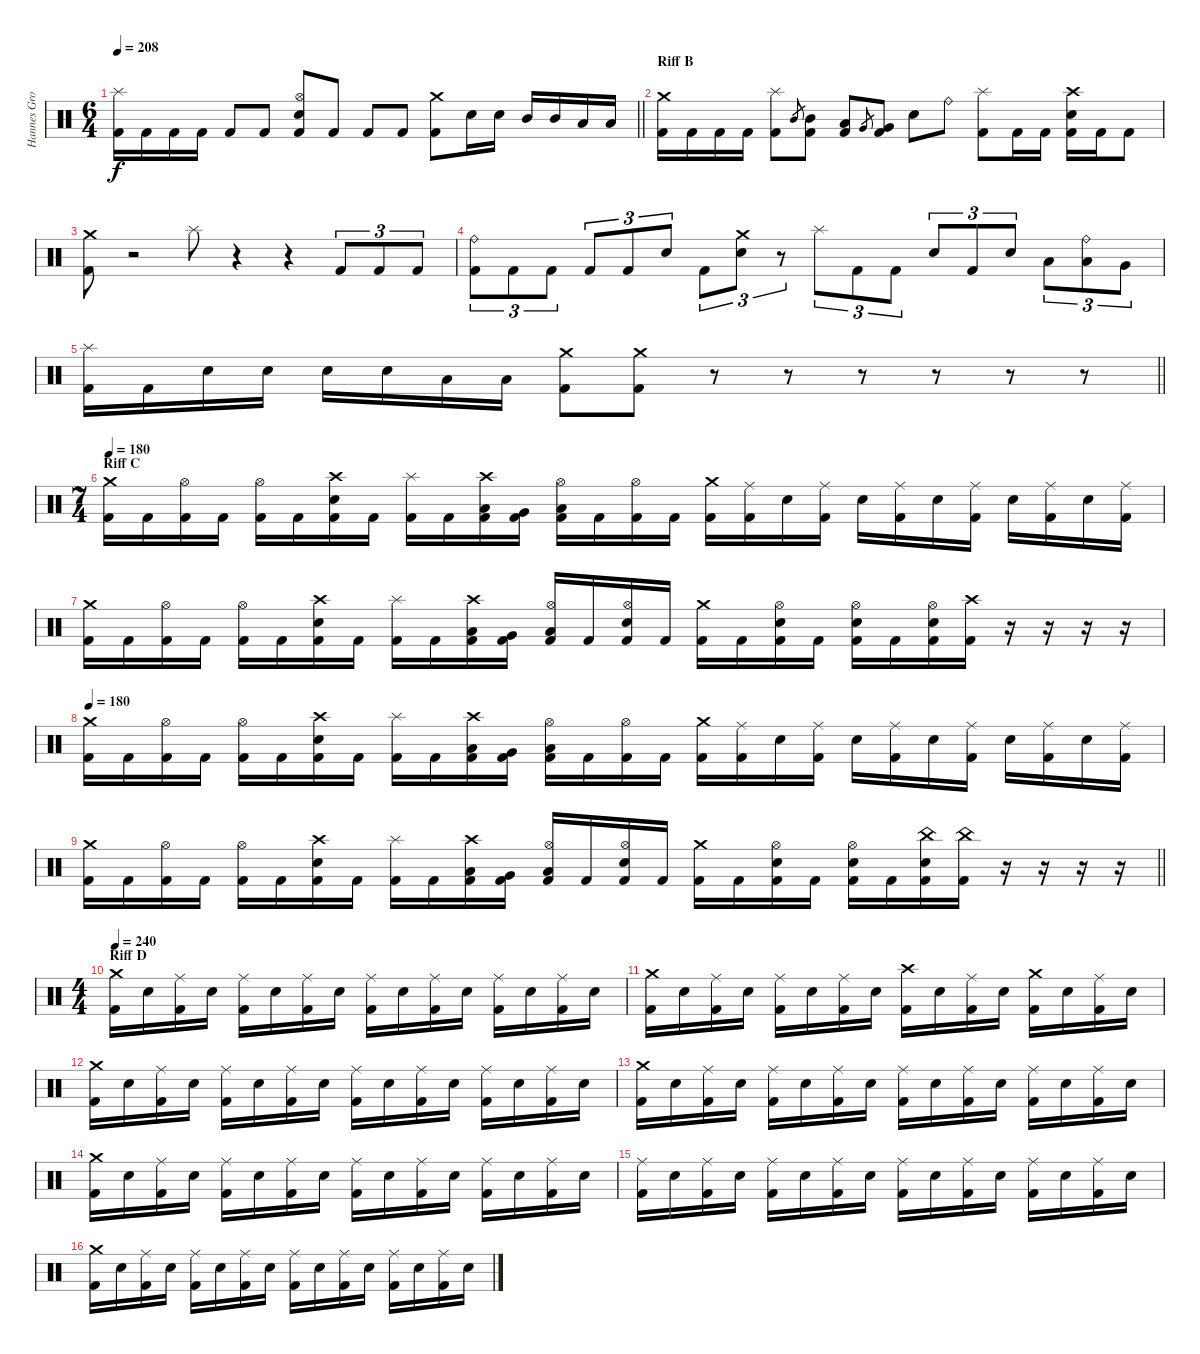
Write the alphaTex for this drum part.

\track ("Hannes Grossmann" "Hannes Gro") {instrument percussion}
\staff {score}
\articulation defaults
\ts (6 4)
\tempo 208
\clef neutral
\barLineRight lightlight
\ks c
("Splash (hit)" "Kick (hit) 2").16{dy f} "Kick (hit) 2".16 "Kick (hit) 2".16 "Kick (hit) 2".16 "Kick (hit) 2".8 "Kick (hit) 2".8 ("Hi-Hat (open)" "Electric Snare (hit)" "Kick (hit) 2").8 "Kick (hit) 2".8 "Kick (hit) 2".8 "Kick (hit) 2".8 ("Crash medium (hit)" "Kick (hit) 2").8 "Electric Snare (hit)".16 "Electric Snare (hit)".16 "Mid Tom (hit)".16 "Mid Tom (hit)".16 "Low Tom (hit)".16 "Low Tom (hit)".16 |
\section ("" "Riff B")
("Crash medium (hit)" "Kick (hit) 2").16 "Kick (hit) 2".16 "Kick (hit) 2".16 "Kick (hit) 2".16 ("Splash (hit)" "Kick (hit) 2").8 "Mid Tom (hit)".8{gr} ("Mid Tom (hit)" "Kick (hit) 2").8 ("Low Tom (hit)" "Kick (hit) 2").8 "Very Low Tom (hit)".8{gr} ("Very Low Tom (hit)" "Kick (hit) 2").8 "Electric Snare (hit)".8 "Ride (bell)".8 ("Splash (hit)" "Kick (hit) 2").8 "Kick (hit) 2".16 "Kick (hit) 2".16 ("Crash high (hit)" "Electric Snare (hit)" "Kick (hit) 2").16 "Kick (hit) 2".16 "Kick (hit) 2".8 |
("Crash medium (hit)" "Kick (hit) 2").8 r.2 "Splash (hit)".8 r.4 r.4 "Kick (hit) 2".8{tu (3 2)} "Kick (hit) 2".8{tu (3 2)} "Kick (hit) 2".8{tu (3 2)} |
("Ride (bell)" "Kick (hit) 2").8{tu (3 2)} "Kick (hit) 2".8{tu (3 2)} "Kick (hit) 2".8{tu (3 2)} "Kick (hit) 2".8{tu (3 2)} "Kick (hit) 2".8{tu (3 2)} "Electric Snare (hit)".8{tu (3 2)} "Kick (hit) 2".8{tu (3 2)} ("Crash medium (hit)" "Electric Snare (hit)").8{tu (3 2)} r.8{tu (3 2)} "Splash (hit)".8{tu (3 2)} "Kick (hit) 2".8{tu (3 2)} "Kick (hit) 2".8{tu (3 2)} "Electric Snare (hit)".8{tu (3 2)} "Kick (hit) 2".8{tu (3 2)} "Electric Snare (hit)".8{tu (3 2)} "Low Tom (hit)".8{tu (3 2)} ("Ride (bell)" "Low Tom (hit)").8{tu (3 2)} "Very Low Tom (hit)".8{tu (3 2)} |
\barLineRight lightlight
("Splash (hit)" "Kick (hit) 2").16 "Kick (hit) 2".16 "Electric Snare (hit)".16 "Electric Snare (hit)".16 "Electric Snare (hit)".16 "Electric Snare (hit)".16 "Low Tom (hit)".16 "Low Tom (hit)".16 ("Crash medium (hit)" "Kick (hit) 2").8 ("Crash medium (hit)" "Kick (hit) 2").8 r.8 r.8 r.8 r.8 r.8 r.8 |
\ts (7 4)
\section ("" "Riff C")
\tempo 180
("Crash medium (hit)" "Kick (hit) 2").16 "Kick (hit) 2".16 ("Hi-Hat (open)" "Kick (hit) 2").16 "Kick (hit) 2".16 ("Hi-Hat (open)" "Kick (hit) 2").16 "Kick (hit) 2".16 ("Crash high (hit)" "Electric Snare (hit)" "Kick (hit) 2").16 "Kick (hit) 2".16 ("Splash (hit)" "Kick (hit) 2").16 "Kick (hit) 2".16 ("Crash high (hit)" "Low Tom (hit)" "Kick (hit) 2").16 ("Very Low Tom (hit)" "Kick (hit) 2").16 ("Hi-Hat (open)" "Low Tom (hit)" "Kick (hit) 2").16 "Kick (hit) 2".16 ("Hi-Hat (open)" "Kick (hit) 2").16 "Kick (hit) 2".16 ("Crash medium (hit)" "Kick (hit) 2").16 ("Ride (middle)" "Kick (hit) 2").16 "Electric Snare (hit)".16 ("Ride (middle)" "Kick (hit) 2").16 "Electric Snare (hit)".16 ("Ride (middle)" "Kick (hit) 2").16 "Electric Snare (hit)".16 ("Ride (middle)" "Kick (hit) 2").16 "Electric Snare (hit)".16 ("Ride (middle)" "Kick (hit) 2").16 "Electric Snare (hit)".16 ("Ride (middle)" "Kick (hit) 2").16 |
("Crash medium (hit)" "Kick (hit) 2").16 "Kick (hit) 2".16 ("Hi-Hat (open)" "Kick (hit) 2").16 "Kick (hit) 2".16 ("Hi-Hat (open)" "Kick (hit) 2").16 "Kick (hit) 2".16 ("Crash high (hit)" "Electric Snare (hit)" "Kick (hit) 2").16 "Kick (hit) 2".16 ("Splash (hit)" "Kick (hit) 2").16 "Kick (hit) 2".16 ("Crash high (hit)" "Low Tom (hit)" "Kick (hit) 2").16 ("Very Low Tom (hit)" "Kick (hit) 2").16 ("Hi-Hat (open)" "Low Tom (hit)" "Kick (hit) 2").16 "Kick (hit) 2".16 ("Hi-Hat (open)" "Electric Snare (hit)" "Kick (hit) 2").16 "Kick (hit) 2".16 ("Crash medium (hit)" "Kick (hit) 2").16 "Kick (hit) 2".16 ("Hi-Hat (open)" "Electric Snare (hit)" "Kick (hit) 2").16 "Kick (hit) 2".16 ("Hi-Hat (open)" "Electric Snare (hit)" "Kick (hit) 2").16 "Kick (hit) 2".16 ("Hi-Hat (open)" "Electric Snare (hit)" "Kick (hit) 2").16 ("Crash high (hit)" "Kick (hit) 2").16 r.16 r.16 r.16 r.16 |
\tempo 180
("Crash medium (hit)" "Kick (hit) 2").16 "Kick (hit) 2".16 ("Hi-Hat (open)" "Kick (hit) 2").16 "Kick (hit) 2".16 ("Hi-Hat (open)" "Kick (hit) 2").16 "Kick (hit) 2".16 ("Crash high (hit)" "Electric Snare (hit)" "Kick (hit) 2").16 "Kick (hit) 2".16 ("Splash (hit)" "Kick (hit) 2").16 "Kick (hit) 2".16 ("Crash high (hit)" "Low Tom (hit)" "Kick (hit) 2").16 ("Very Low Tom (hit)" "Kick (hit) 2").16 ("Hi-Hat (open)" "Low Tom (hit)" "Kick (hit) 2").16 "Kick (hit) 2".16 ("Hi-Hat (open)" "Kick (hit) 2").16 "Kick (hit) 2".16 ("Crash medium (hit)" "Kick (hit) 2").16 ("Ride (middle)" "Kick (hit) 2").16 "Electric Snare (hit)".16 ("Ride (middle)" "Kick (hit) 2").16 "Electric Snare (hit)".16 ("Ride (middle)" "Kick (hit) 2").16 "Electric Snare (hit)".16 ("Ride (middle)" "Kick (hit) 2").16 "Electric Snare (hit)".16 ("Ride (middle)" "Kick (hit) 2").16 "Electric Snare (hit)".16 ("Ride (middle)" "Kick (hit) 2").16 |
\barLineRight lightlight
("Crash medium (hit)" "Kick (hit) 2").16 "Kick (hit) 2".16 ("Hi-Hat (open)" "Kick (hit) 2").16 "Kick (hit) 2".16 ("Hi-Hat (open)" "Kick (hit) 2").16 "Kick (hit) 2".16 ("Crash high (hit)" "Electric Snare (hit)" "Kick (hit) 2").16 "Kick (hit) 2".16 ("Splash (hit)" "Kick (hit) 2").16 "Kick (hit) 2".16 ("Crash high (hit)" "Low Tom (hit)" "Kick (hit) 2").16 ("Very Low Tom (hit)" "Kick (hit) 2").16 ("Hi-Hat (open)" "Low Tom (hit)" "Kick (hit) 2").16 "Kick (hit) 2".16 ("Hi-Hat (open)" "Electric Snare (hit)" "Kick (hit) 2").16 "Kick (hit) 2".16 ("Crash medium (hit)" "Kick (hit) 2").16 "Kick (hit) 2".16 ("Hi-Hat (open)" "Electric Snare (hit)" "Kick (hit) 2").16 "Kick (hit) 2".16 ("Hi-Hat (open)" "Electric Snare (hit)" "Kick (hit) 2").16 "Kick (hit) 2".16 ("China (hit)" "Electric Snare (hit)" "Kick (hit) 2").16 ("China (hit)" "Kick (hit) 2").16 r.16 r.16 r.16 r.16 |
\ts (4 4)
\section ("" "Riff D")
\tempo 240
("Crash medium (hit)" "Kick (hit) 2").16 "Electric Snare (hit)".16 ("Ride (middle)" "Kick (hit) 2").16 "Electric Snare (hit)".16 ("Ride (middle)" "Kick (hit) 2").16 "Electric Snare (hit)".16 ("Ride (middle)" "Kick (hit) 2").16 "Electric Snare (hit)".16 ("Ride (middle)" "Kick (hit) 2").16 "Electric Snare (hit)".16 ("Ride (middle)" "Kick (hit) 2").16 "Electric Snare (hit)".16 ("Ride (middle)" "Kick (hit) 2").16 "Electric Snare (hit)".16 ("Ride (middle)" "Kick (hit) 2").16 "Electric Snare (hit)".16 |
("Crash medium (hit)" "Kick (hit) 2").16 "Electric Snare (hit)".16 ("Ride (middle)" "Kick (hit) 2").16 "Electric Snare (hit)".16 ("Ride (middle)" "Kick (hit) 2").16 "Electric Snare (hit)".16 ("Ride (middle)" "Kick (hit) 2").16 "Electric Snare (hit)".16 ("Crash high (hit)" "Kick (hit) 2").16 "Electric Snare (hit)".16 ("Ride (middle)" "Kick (hit) 2").16 "Electric Snare (hit)".16 ("Crash medium (hit)" "Kick (hit) 2").16 "Electric Snare (hit)".16 ("Ride (middle)" "Kick (hit) 2").16 "Electric Snare (hit)".16 |
("Crash medium (hit)" "Kick (hit) 2").16 "Electric Snare (hit)".16 ("Ride (middle)" "Kick (hit) 2").16 "Electric Snare (hit)".16 ("Ride (middle)" "Kick (hit) 2").16 "Electric Snare (hit)".16 ("Ride (middle)" "Kick (hit) 2").16 "Electric Snare (hit)".16 ("Ride (middle)" "Kick (hit) 2").16 "Electric Snare (hit)".16 ("Ride (middle)" "Kick (hit) 2").16 "Electric Snare (hit)".16 ("Ride (middle)" "Kick (hit) 2").16 "Electric Snare (hit)".16 ("Ride (middle)" "Kick (hit) 2").16 "Electric Snare (hit)".16 |
("Crash medium (hit)" "Kick (hit) 2").16 "Electric Snare (hit)".16 ("Ride (middle)" "Kick (hit) 2").16 "Electric Snare (hit)".16 ("Ride (middle)" "Kick (hit) 2").16 "Electric Snare (hit)".16 ("Ride (middle)" "Kick (hit) 2").16 "Electric Snare (hit)".16 ("Ride (middle)" "Kick (hit) 2").16 "Electric Snare (hit)".16 ("Ride (middle)" "Kick (hit) 2").16 "Electric Snare (hit)".16 ("Ride (middle)" "Kick (hit) 2").16 "Electric Snare (hit)".16 ("Ride (middle)" "Kick (hit) 2").16 "Electric Snare (hit)".16 |
("Crash medium (hit)" "Kick (hit) 2").16 "Electric Snare (hit)".16 ("Ride (middle)" "Kick (hit) 2").16 "Electric Snare (hit)".16 ("Ride (middle)" "Kick (hit) 2").16 "Electric Snare (hit)".16 ("Ride (middle)" "Kick (hit) 2").16 "Electric Snare (hit)".16 ("Ride (middle)" "Kick (hit) 2").16 "Electric Snare (hit)".16 ("Ride (middle)" "Kick (hit) 2").16 "Electric Snare (hit)".16 ("Ride (middle)" "Kick (hit) 2").16 "Electric Snare (hit)".16 ("Ride (middle)" "Kick (hit) 2").16 "Electric Snare (hit)".16 |
("Ride (middle)" "Kick (hit) 2").16 "Electric Snare (hit)".16 ("Ride (middle)" "Kick (hit) 2").16 "Electric Snare (hit)".16 ("Ride (middle)" "Kick (hit) 2").16 "Electric Snare (hit)".16 ("Ride (middle)" "Kick (hit) 2").16 "Electric Snare (hit)".16 ("Ride (middle)" "Kick (hit) 2").16 "Electric Snare (hit)".16 ("Ride (middle)" "Kick (hit) 2").16 "Electric Snare (hit)".16 ("Ride (middle)" "Kick (hit) 2").16 "Electric Snare (hit)".16 ("Ride (middle)" "Kick (hit) 2").16 "Electric Snare (hit)".16 |
("Crash medium (hit)" "Kick (hit) 2").16 "Electric Snare (hit)".16 ("Ride (middle)" "Kick (hit) 2").16 "Electric Snare (hit)".16 ("Ride (middle)" "Kick (hit) 2").16 "Electric Snare (hit)".16 ("Ride (middle)" "Kick (hit) 2").16 "Electric Snare (hit)".16 ("Ride (middle)" "Kick (hit) 2").16 "Electric Snare (hit)".16 ("Ride (middle)" "Kick (hit) 2").16 "Electric Snare (hit)".16 ("Ride (middle)" "Kick (hit) 2").16 "Electric Snare (hit)".16 ("Ride (middle)" "Kick (hit) 2").16 "Electric Snare (hit)".16
